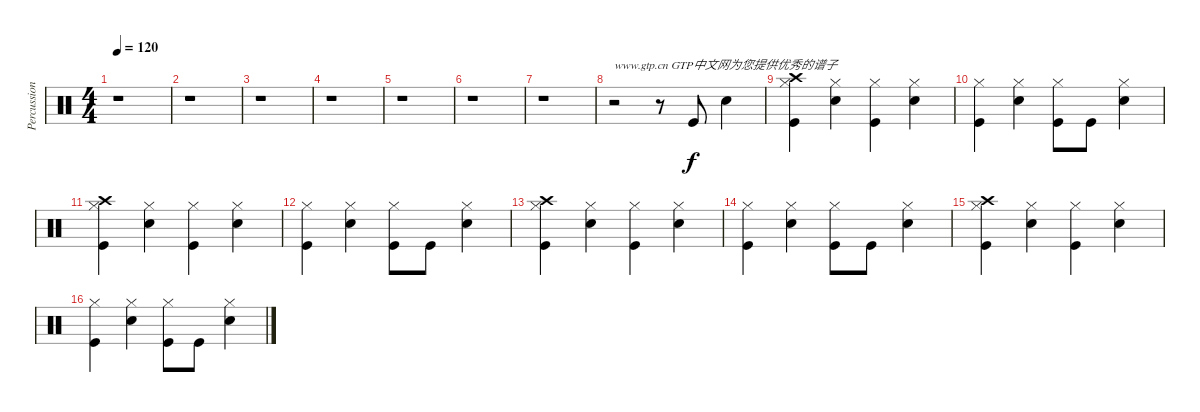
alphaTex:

\track ("Percussion" "Percussion") {instrument percussion}
\staff {score}
\articulation defaults
\ts (4 4)
\tempo 120
\clef neutral
\ks c
r.1{dy f} |
r.1 |
r.1 |
r.1 |
r.1 |
r.1 |
r.1 |
r.2{txt "www.gtp.cn GTP中文网为您提供优秀的谱子"} r.8 "Kick (hit)".8 "Snare (hit) 2".4 |
("Kick (hit)" "Hi-Hat (closed)" "Crash high (hit)").4 ("Snare (hit) 2" "Hi-Hat (closed)").4 ("Kick (hit)" "Hi-Hat (closed)").4 ("Snare (hit) 2" "Hi-Hat (closed)").4 |
("Kick (hit)" "Hi-Hat (closed)").4 ("Snare (hit) 2" "Hi-Hat (closed)").4 ("Kick (hit)" "Hi-Hat (closed)").8 "Kick (hit)".8 ("Hi-Hat (closed)" "Snare (hit) 2").4 |
("Kick (hit)" "Hi-Hat (closed)" "Crash high (hit)").4 ("Snare (hit) 2" "Hi-Hat (closed)").4 ("Kick (hit)" "Hi-Hat (closed)").4 ("Snare (hit) 2" "Hi-Hat (closed)").4 |
("Kick (hit)" "Hi-Hat (closed)").4 ("Snare (hit) 2" "Hi-Hat (closed)").4 ("Kick (hit)" "Hi-Hat (closed)").8 "Kick (hit)".8 ("Hi-Hat (closed)" "Snare (hit) 2").4 |
("Kick (hit)" "Hi-Hat (closed)" "Crash high (hit)").4 ("Snare (hit) 2" "Hi-Hat (closed)").4 ("Kick (hit)" "Hi-Hat (closed)").4 ("Snare (hit) 2" "Hi-Hat (closed)").4 |
("Kick (hit)" "Hi-Hat (closed)").4 ("Snare (hit) 2" "Hi-Hat (closed)").4 ("Kick (hit)" "Hi-Hat (closed)").8 "Kick (hit)".8 ("Hi-Hat (closed)" "Snare (hit) 2").4 |
("Kick (hit)" "Hi-Hat (closed)" "Crash high (hit)").4 ("Snare (hit) 2" "Hi-Hat (closed)").4 ("Kick (hit)" "Hi-Hat (closed)").4 ("Snare (hit) 2" "Hi-Hat (closed)").4 |
("Kick (hit)" "Hi-Hat (closed)").4 ("Snare (hit) 2" "Hi-Hat (closed)").4 ("Kick (hit)" "Hi-Hat (closed)").8 "Kick (hit)".8 ("Hi-Hat (closed)" "Snare (hit) 2").4
